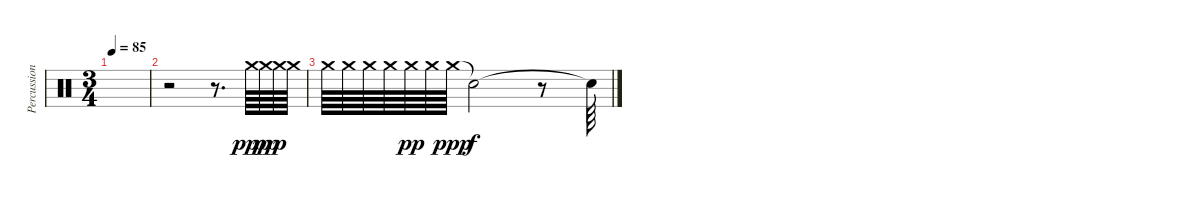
\track ("Percussion" "Percussion") {instrument percussion}
\staff {score}
\articulation defaults
\ts (3 4)
\tempo 85
\clef neutral
\ks c
|
r.2 r.8{d} "Crash medium (hit)".64{dy ppp} "Crash medium (hit)".64{dy pp} "Crash medium (hit)".64{dy p} "Crash medium (hit)".64 |
"Crash medium (hit)".64 "Crash medium (hit)".64 "Crash medium (hit)".64 "Crash medium (hit)".64 "Crash medium (hit)".64{dy pp} "Crash medium (hit)".64 "Crash medium (hit)".64{dy ppp} "Snare (hit)"{t}.2{dy f} r.8 "Snare (hit)"{t}.64
